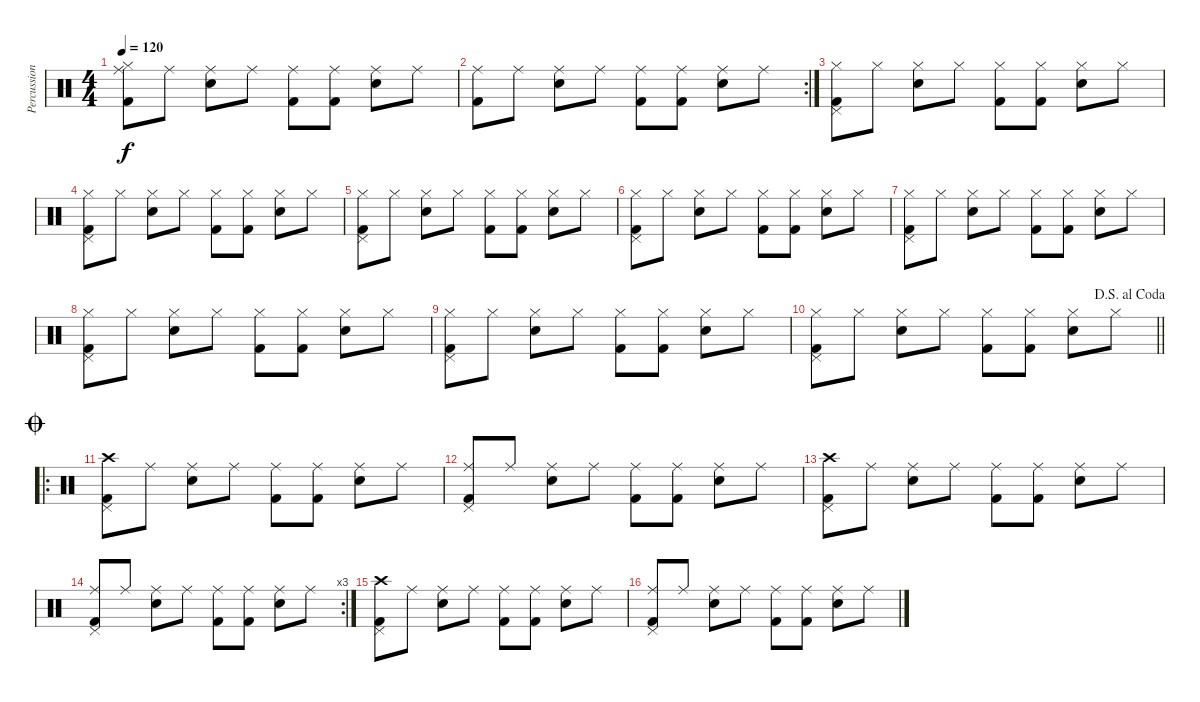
\track ("Percussion" "Percussion") {instrument percussion}
\staff {score}
\articulation defaults
\ts (4 4)
\tempo 120
\clef neutral
\ks c
("Kick (hit) 2" "Ride (middle)" "Hi-Hat (closed)").8{dy f} "Ride (middle)".8 ("Electric Snare (hit)" "Ride (middle)").8 "Ride (middle)".8 ("Kick (hit) 2" "Ride (middle)").8 ("Kick (hit) 2" "Ride (middle)").8 ("Electric Snare (hit)" "Ride (middle)").8 "Ride (middle)".8 |
\rc 2
("Kick (hit) 2" "Ride (middle)").8 "Ride (middle)".8 ("Electric Snare (hit)" "Ride (middle)").8 "Ride (middle)".8 ("Kick (hit) 2" "Ride (middle)").8 ("Kick (hit) 2" "Ride (middle)").8 ("Electric Snare (hit)" "Ride (middle)").8 "Ride (middle)".8 |
("Kick (hit) 2" "Pedal Hi-Hat (hit)" "Hi-Hat (closed)").8 "Hi-Hat (closed)".8 ("Electric Snare (hit)" "Hi-Hat (closed)").8 "Hi-Hat (closed)".8 ("Kick (hit) 2" "Hi-Hat (closed)").8 ("Kick (hit) 2" "Hi-Hat (closed)").8 ("Electric Snare (hit)" "Hi-Hat (closed)").8 "Hi-Hat (closed)".8 |
("Kick (hit) 2" "Pedal Hi-Hat (hit)" "Hi-Hat (closed)").8 "Hi-Hat (closed)".8 ("Electric Snare (hit)" "Hi-Hat (closed)").8 "Hi-Hat (closed)".8 ("Kick (hit) 2" "Hi-Hat (closed)").8 ("Kick (hit) 2" "Hi-Hat (closed)").8 ("Electric Snare (hit)" "Hi-Hat (closed)").8 "Hi-Hat (closed)".8 |
("Kick (hit) 2" "Pedal Hi-Hat (hit)" "Hi-Hat (closed)").8 "Hi-Hat (closed)".8 ("Electric Snare (hit)" "Hi-Hat (closed)").8 "Hi-Hat (closed)".8 ("Kick (hit) 2" "Hi-Hat (closed)").8 ("Kick (hit) 2" "Hi-Hat (closed)").8 ("Electric Snare (hit)" "Hi-Hat (closed)").8 "Hi-Hat (closed)".8 |
("Kick (hit) 2" "Pedal Hi-Hat (hit)" "Hi-Hat (closed)").8 "Hi-Hat (closed)".8 ("Electric Snare (hit)" "Hi-Hat (closed)").8 "Hi-Hat (closed)".8 ("Kick (hit) 2" "Hi-Hat (closed)").8 ("Kick (hit) 2" "Hi-Hat (closed)").8 ("Electric Snare (hit)" "Hi-Hat (closed)").8 "Hi-Hat (closed)".8 |
("Kick (hit) 2" "Pedal Hi-Hat (hit)" "Hi-Hat (closed)").8 "Hi-Hat (closed)".8 ("Electric Snare (hit)" "Hi-Hat (closed)").8 "Hi-Hat (closed)".8 ("Kick (hit) 2" "Hi-Hat (closed)").8 ("Kick (hit) 2" "Hi-Hat (closed)").8 ("Electric Snare (hit)" "Hi-Hat (closed)").8 "Hi-Hat (closed)".8 |
("Kick (hit) 2" "Pedal Hi-Hat (hit)" "Hi-Hat (closed)").8 "Hi-Hat (closed)".8 ("Electric Snare (hit)" "Hi-Hat (closed)").8 "Hi-Hat (closed)".8 ("Kick (hit) 2" "Hi-Hat (closed)").8 ("Kick (hit) 2" "Hi-Hat (closed)").8 ("Electric Snare (hit)" "Hi-Hat (closed)").8 "Hi-Hat (closed)".8 |
("Kick (hit) 2" "Pedal Hi-Hat (hit)" "Hi-Hat (closed)").8 "Hi-Hat (closed)".8 ("Electric Snare (hit)" "Hi-Hat (closed)").8 "Hi-Hat (closed)".8 ("Kick (hit) 2" "Hi-Hat (closed)").8 ("Kick (hit) 2" "Hi-Hat (closed)").8 ("Electric Snare (hit)" "Hi-Hat (closed)").8 "Hi-Hat (closed)".8 |
\jump dalsegnoalcoda
\barLineRight lightlight
("Kick (hit) 2" "Pedal Hi-Hat (hit)" "Hi-Hat (closed)").8 "Hi-Hat (closed)".8 ("Electric Snare (hit)" "Hi-Hat (closed)").8 "Hi-Hat (closed)".8 ("Kick (hit) 2" "Hi-Hat (closed)").8 ("Kick (hit) 2" "Hi-Hat (closed)").8 ("Electric Snare (hit)" "Hi-Hat (closed)").8 "Hi-Hat (closed)".8 |
\ro
\jump coda
("Kick (hit) 2" "Pedal Hi-Hat (hit)" "Crash high (hit)").8 "Ride (middle)".8 ("Electric Snare (hit)" "Ride (middle)").8 "Ride (middle)".8 ("Kick (hit) 2" "Ride (middle)").8 ("Kick (hit) 2" "Ride (middle)").8 ("Electric Snare (hit)" "Ride (middle)").8 "Ride (middle)".8 |
("Kick (hit) 2" "Pedal Hi-Hat (hit)" "Ride (middle)").8 "Ride (middle)".8 ("Electric Snare (hit)" "Ride (middle)").8 "Ride (middle)".8 ("Kick (hit) 2" "Ride (middle)").8 ("Kick (hit) 2" "Ride (middle)").8 ("Electric Snare (hit)" "Ride (middle)").8 "Ride (middle)".8 |
("Kick (hit) 2" "Pedal Hi-Hat (hit)" "Crash high (hit)").8 "Ride (middle)".8 ("Electric Snare (hit)" "Ride (middle)").8 "Ride (middle)".8 ("Kick (hit) 2" "Ride (middle)").8 ("Kick (hit) 2" "Ride (middle)").8 ("Electric Snare (hit)" "Ride (middle)").8 "Ride (middle)".8 |
\rc 3
("Kick (hit) 2" "Pedal Hi-Hat (hit)" "Ride (middle)").8 "Ride (middle)".8 ("Electric Snare (hit)" "Ride (middle)").8 "Ride (middle)".8 ("Kick (hit) 2" "Ride (middle)").8 ("Kick (hit) 2" "Ride (middle)").8 ("Electric Snare (hit)" "Ride (middle)").8 "Ride (middle)".8 |
("Kick (hit) 2" "Pedal Hi-Hat (hit)" "Crash high (hit)").8 "Ride (middle)".8 ("Electric Snare (hit)" "Ride (middle)").8 "Ride (middle)".8 ("Kick (hit) 2" "Ride (middle)").8 ("Kick (hit) 2" "Ride (middle)").8 ("Electric Snare (hit)" "Ride (middle)").8 "Ride (middle)".8 |
("Kick (hit) 2" "Pedal Hi-Hat (hit)" "Ride (middle)").8 "Ride (middle)".8 ("Electric Snare (hit)" "Ride (middle)").8 "Ride (middle)".8 ("Kick (hit) 2" "Ride (middle)").8 ("Kick (hit) 2" "Ride (middle)").8 ("Electric Snare (hit)" "Ride (middle)").8 "Ride (middle)".8
